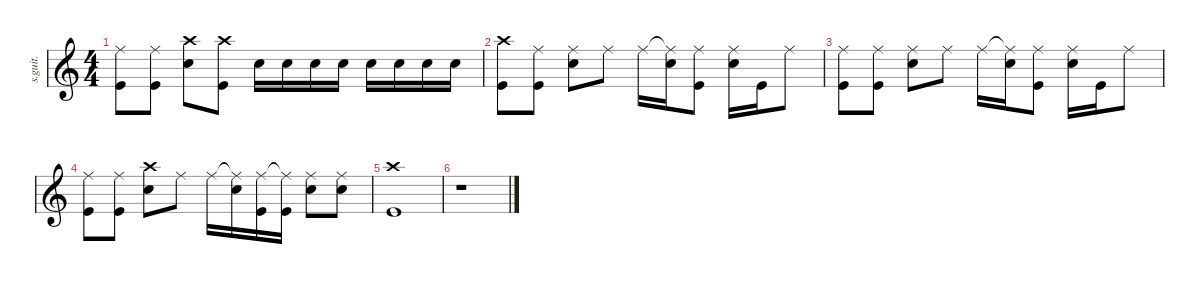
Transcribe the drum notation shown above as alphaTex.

\defaultSystemsLayout 4
\hideDynamics
\bracketExtendMode nobrackets
\track ("Phil Selway" "s.guit.") {instrument percussion}
\staff {score}
\articulation defaults
\ts (4 4)
\tempo (88 hide)
\clef g2
\ks c
("Ride (middle)" "Kick (hit)").8{lyrics (0 "") lyrics (1 "") lyrics (2 "") lyrics (3 "") lyrics (4 "") dy f} ("Ride (middle)" "Kick (hit)").8{lyrics (0 "") lyrics (1 "") lyrics (2 "") lyrics (3 "") lyrics (4 "")} ("Crash high (hit)" "Snare (hit) 2").8{lyrics (0 "") lyrics (1 "") lyrics (2 "") lyrics (3 "") lyrics (4 "")} ("Crash high (hit)" "Kick (hit)").8{lyrics (0 "") lyrics (1 "") lyrics (2 "") lyrics (3 "") lyrics (4 "")} "Snare (hit) 2".16{lyrics (0 "") lyrics (1 "") lyrics (2 "") lyrics (3 "") lyrics (4 "")} "Snare (hit) 2".16{lyrics (0 "") lyrics (1 "") lyrics (2 "") lyrics (3 "") lyrics (4 "")} "Snare (hit) 2".16{lyrics (0 "") lyrics (1 "") lyrics (2 "") lyrics (3 "") lyrics (4 "")} "Snare (hit) 2".16{lyrics (0 "") lyrics (1 "") lyrics (2 "") lyrics (3 "") lyrics (4 "")} "Snare (hit) 2".16{lyrics (0 "") lyrics (1 "") lyrics (2 "") lyrics (3 "") lyrics (4 "")} "Snare (hit) 2".16{lyrics (0 "") lyrics (1 "") lyrics (2 "") lyrics (3 "") lyrics (4 "")} "Snare (hit) 2".16{lyrics (0 "") lyrics (1 "") lyrics (2 "") lyrics (3 "") lyrics (4 "")} "Snare (hit) 2".16{lyrics (0 "") lyrics (1 "") lyrics (2 "") lyrics (3 "") lyrics (4 "")} |
("Crash high (hit)" "Kick (hit)").8{lyrics (0 "") lyrics (1 "") lyrics (2 "") lyrics (3 "") lyrics (4 "")} ("Ride (middle)" "Kick (hit)").8{lyrics (0 "") lyrics (1 "") lyrics (2 "") lyrics (3 "") lyrics (4 "")} ("Ride (middle)" "Snare (hit) 2").8{lyrics (0 "") lyrics (1 "") lyrics (2 "") lyrics (3 "") lyrics (4 "")} "Ride (middle)".8{lyrics (0 "") lyrics (1 "") lyrics (2 "") lyrics (3 "") lyrics (4 "")} "Ride (middle)".16{lyrics (0 "") lyrics (1 "") lyrics (2 "") lyrics (3 "") lyrics (4 "")} ("Ride (middle)"{t} "Snare (hit) 2").16{lyrics (0 "") lyrics (1 "") lyrics (2 "") lyrics (3 "") lyrics (4 "")} ("Ride (middle)" "Kick (hit)").8{lyrics (0 "") lyrics (1 "") lyrics (2 "") lyrics (3 "") lyrics (4 "")} ("Ride (middle)" "Snare (hit) 2").16{lyrics (0 "") lyrics (1 "") lyrics (2 "") lyrics (3 "") lyrics (4 "")} "Kick (hit)".16{lyrics (0 "") lyrics (1 "") lyrics (2 "") lyrics (3 "") lyrics (4 "") dy fff} "Ride (middle)".8{lyrics (0 "") lyrics (1 "") lyrics (2 "") lyrics (3 "") lyrics (4 "") dy f} |
("Ride (middle)" "Kick (hit)").8{lyrics (0 "") lyrics (1 "") lyrics (2 "") lyrics (3 "") lyrics (4 "")} ("Ride (middle)" "Kick (hit)").8{lyrics (0 "") lyrics (1 "") lyrics (2 "") lyrics (3 "") lyrics (4 "")} ("Ride (middle)" "Snare (hit) 2").8{lyrics (0 "") lyrics (1 "") lyrics (2 "") lyrics (3 "") lyrics (4 "")} "Ride (middle)".8{lyrics (0 "") lyrics (1 "") lyrics (2 "") lyrics (3 "") lyrics (4 "")} "Ride (middle)".16{lyrics (0 "") lyrics (1 "") lyrics (2 "") lyrics (3 "") lyrics (4 "")} ("Ride (middle)"{t} "Snare (hit) 2").16{lyrics (0 "") lyrics (1 "") lyrics (2 "") lyrics (3 "") lyrics (4 "")} ("Ride (middle)" "Kick (hit)").8{lyrics (0 "") lyrics (1 "") lyrics (2 "") lyrics (3 "") lyrics (4 "")} ("Ride (middle)" "Snare (hit) 2").16{lyrics (0 "") lyrics (1 "") lyrics (2 "") lyrics (3 "") lyrics (4 "")} "Kick (hit)".16{lyrics (0 "") lyrics (1 "") lyrics (2 "") lyrics (3 "") lyrics (4 "") dy fff} "Ride (middle)".8{lyrics (0 "") lyrics (1 "") lyrics (2 "") lyrics (3 "") lyrics (4 "") dy f} |
("Ride (middle)" "Kick (hit)").8{lyrics (0 "") lyrics (1 "") lyrics (2 "") lyrics (3 "") lyrics (4 "")} ("Ride (middle)" "Kick (hit)").8{lyrics (0 "") lyrics (1 "") lyrics (2 "") lyrics (3 "") lyrics (4 "")} ("Crash high (hit)" "Snare (hit) 2").8{lyrics (0 "") lyrics (1 "") lyrics (2 "") lyrics (3 "") lyrics (4 "")} "Ride (middle)".8{lyrics (0 "") lyrics (1 "") lyrics (2 "") lyrics (3 "") lyrics (4 "")} "Ride (middle)".16{lyrics (0 "") lyrics (1 "") lyrics (2 "") lyrics (3 "") lyrics (4 "")} ("Ride (middle)"{t} "Snare (hit) 2").16{lyrics (0 "") lyrics (1 "") lyrics (2 "") lyrics (3 "") lyrics (4 "")} ("Ride (middle)" "Kick (hit)").16{lyrics (0 "") lyrics (1 "") lyrics (2 "") lyrics (3 "") lyrics (4 "")} ("Ride (middle)"{t} "Kick (hit)").16{lyrics (0 "") lyrics (1 "") lyrics (2 "") lyrics (3 "") lyrics (4 "")} ("Ride (middle)" "Snare (hit) 2").8{lyrics (0 "") lyrics (1 "") lyrics (2 "") lyrics (3 "") lyrics (4 "")} ("Ride (middle)" "Snare (hit) 2").8{lyrics (0 "") lyrics (1 "") lyrics (2 "") lyrics (3 "") lyrics (4 "")} |
("Crash high (hit)" "Kick (hit)").1{lyrics (0 "") lyrics (1 "") lyrics (2 "") lyrics (3 "") lyrics (4 "")} |
r.1
